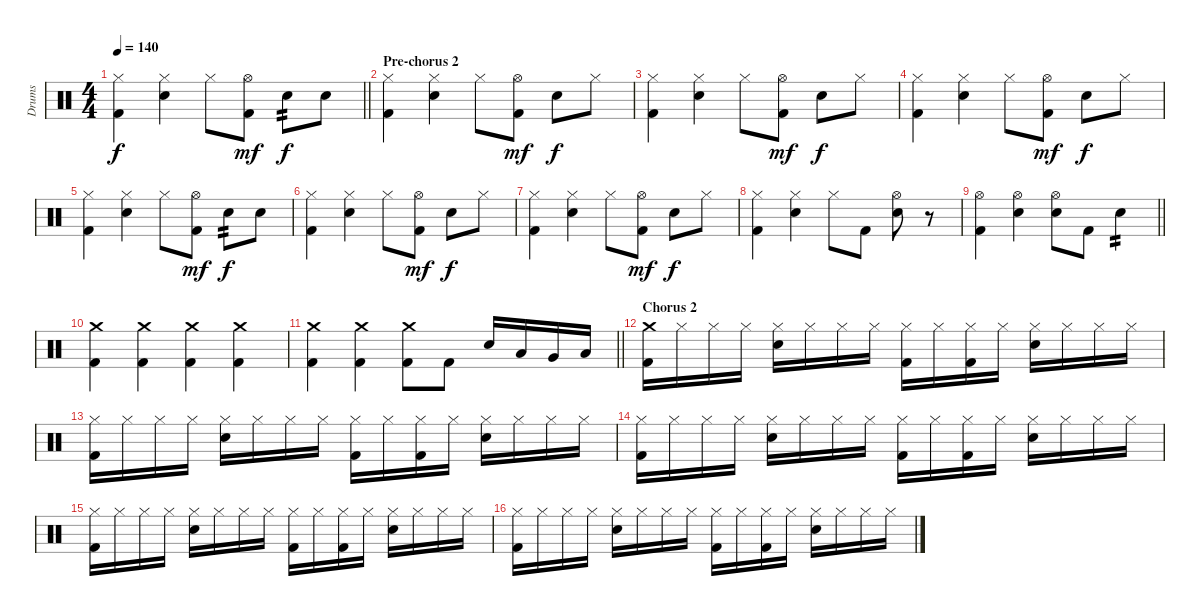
\track ("Drums" "Drums") {instrument percussion}
\staff {score}
\articulation defaults
\ts (4 4)
\tempo 140
\clef neutral
\barLineRight lightlight
\ks c
("Hi-Hat (closed)" "Kick (hit) 2").4{dy f} ("Hi-Hat (closed)" "Snare (hit) 2").4 "Hi-Hat (closed)".8 ("Hi-Hat (open)" "Kick (hit) 2").8{dy mf} "Snare (hit) 2".8{tp 2 dy f} "Snare (hit) 2".8 |
\section ("" "Pre-chorus 2")
("Hi-Hat (closed)" "Kick (hit) 2").4 ("Hi-Hat (closed)" "Snare (hit) 2").4 "Hi-Hat (closed)".8 ("Hi-Hat (open)" "Kick (hit) 2").8{dy mf} "Snare (hit) 2".8{dy f} "Hi-Hat (closed)".8 |
("Hi-Hat (closed)" "Kick (hit) 2").4 ("Hi-Hat (closed)" "Snare (hit) 2").4 "Hi-Hat (closed)".8 ("Hi-Hat (open)" "Kick (hit) 2").8{dy mf} "Snare (hit) 2".8{dy f} "Hi-Hat (closed)".8 |
("Hi-Hat (closed)" "Kick (hit) 2").4 ("Hi-Hat (closed)" "Snare (hit) 2").4 "Hi-Hat (closed)".8 ("Hi-Hat (open)" "Kick (hit) 2").8{dy mf} "Snare (hit) 2".8{dy f} "Hi-Hat (closed)".8 |
("Hi-Hat (closed)" "Kick (hit) 2").4 ("Hi-Hat (closed)" "Snare (hit) 2").4 "Hi-Hat (closed)".8 ("Hi-Hat (open)" "Kick (hit) 2").8{dy mf} "Snare (hit) 2".8{tp 2 dy f} "Snare (hit) 2".8 |
("Hi-Hat (closed)" "Kick (hit) 2").4 ("Hi-Hat (closed)" "Snare (hit) 2").4 "Hi-Hat (closed)".8 ("Hi-Hat (open)" "Kick (hit) 2").8{dy mf} "Snare (hit) 2".8{dy f} "Hi-Hat (closed)".8 |
("Hi-Hat (closed)" "Kick (hit) 2").4 ("Hi-Hat (closed)" "Snare (hit) 2").4 "Hi-Hat (closed)".8 ("Hi-Hat (open)" "Kick (hit) 2").8{dy mf} "Snare (hit) 2".8{dy f} "Hi-Hat (closed)".8 |
("Hi-Hat (closed)" "Kick (hit) 2").4 ("Hi-Hat (closed)" "Snare (hit) 2").4 "Hi-Hat (closed)".8 "Kick (hit) 2".8 ("Hi-Hat (open)" "Snare (hit) 2").8 r.8 |
\barLineRight lightlight
("Hi-Hat (open)" "Kick (hit) 2").4 ("Hi-Hat (open)" "Snare (hit) 2").4 ("Hi-Hat (open)" "Snare (hit) 2").8 "Kick (hit) 2".8 "Snare (hit) 2".4{tp 2} |
("Crash medium (hit)" "Kick (hit) 2").4 ("Crash medium (hit)" "Kick (hit) 2").4 ("Crash medium (hit)" "Kick (hit) 2").4 ("Crash medium (hit)" "Kick (hit) 2").4 |
\barLineRight lightlight
("Crash medium (hit)" "Kick (hit) 2").4 ("Crash medium (hit)" "Kick (hit) 2").4 ("Crash medium (hit)" "Kick (hit) 2").8 "Kick (hit) 2".8 "Snare (hit) 2".16 "Low Tom (hit)".16 "Very Low Tom (hit)".16 "Low Floor Tom (hit)".16 |
\section ("" "Chorus 2")
("Crash medium (hit)" "Kick (hit) 2").16 "Hi-Hat (closed)".16 "Hi-Hat (closed)".16 "Hi-Hat (closed)".16 ("Hi-Hat (closed)" "Snare (hit) 2").16 "Hi-Hat (closed)".16 "Hi-Hat (closed)".16 "Hi-Hat (closed)".16 ("Hi-Hat (closed)" "Kick (hit) 2").16 "Hi-Hat (closed)".16 ("Hi-Hat (closed)" "Kick (hit) 2").16 "Hi-Hat (closed)".16 ("Hi-Hat (closed)" "Snare (hit) 2").16 "Hi-Hat (closed)".16 "Hi-Hat (closed)".16 "Hi-Hat (closed)".16 |
("Hi-Hat (closed)" "Kick (hit) 2").16 "Hi-Hat (closed)".16 "Hi-Hat (closed)".16 "Hi-Hat (closed)".16 ("Hi-Hat (closed)" "Snare (hit) 2").16 "Hi-Hat (closed)".16 "Hi-Hat (closed)".16 "Hi-Hat (closed)".16 ("Hi-Hat (closed)" "Kick (hit) 2").16 "Hi-Hat (closed)".16 ("Hi-Hat (closed)" "Kick (hit) 2").16 "Hi-Hat (closed)".16 ("Hi-Hat (closed)" "Snare (hit) 2").16 "Hi-Hat (closed)".16 "Hi-Hat (closed)".16 "Hi-Hat (closed)".16 |
("Hi-Hat (closed)" "Kick (hit) 2").16 "Hi-Hat (closed)".16 "Hi-Hat (closed)".16 "Hi-Hat (closed)".16 ("Hi-Hat (closed)" "Snare (hit) 2").16 "Hi-Hat (closed)".16 "Hi-Hat (closed)".16 "Hi-Hat (closed)".16 ("Hi-Hat (closed)" "Kick (hit) 2").16 "Hi-Hat (closed)".16 ("Hi-Hat (closed)" "Kick (hit) 2").16 "Hi-Hat (closed)".16 ("Hi-Hat (closed)" "Snare (hit) 2").16 "Hi-Hat (closed)".16 "Hi-Hat (closed)".16 "Hi-Hat (closed)".16 |
("Hi-Hat (closed)" "Kick (hit) 2").16 "Hi-Hat (closed)".16 "Hi-Hat (closed)".16 "Hi-Hat (closed)".16 ("Hi-Hat (closed)" "Snare (hit) 2").16 "Hi-Hat (closed)".16 "Hi-Hat (closed)".16 "Hi-Hat (closed)".16 ("Hi-Hat (closed)" "Kick (hit) 2").16 "Hi-Hat (closed)".16 ("Hi-Hat (closed)" "Kick (hit) 2").16 "Hi-Hat (closed)".16 ("Hi-Hat (closed)" "Snare (hit) 2").16 "Hi-Hat (closed)".16 "Hi-Hat (closed)".16 "Hi-Hat (closed)".16 |
("Hi-Hat (closed)" "Kick (hit) 2").16 "Hi-Hat (closed)".16 "Hi-Hat (closed)".16 "Hi-Hat (closed)".16 ("Hi-Hat (closed)" "Snare (hit) 2").16 "Hi-Hat (closed)".16 "Hi-Hat (closed)".16 "Hi-Hat (closed)".16 ("Hi-Hat (closed)" "Kick (hit) 2").16 "Hi-Hat (closed)".16 ("Hi-Hat (closed)" "Kick (hit) 2").16 "Hi-Hat (closed)".16 ("Hi-Hat (closed)" "Snare (hit) 2").16 "Hi-Hat (closed)".16 "Hi-Hat (closed)".16 "Hi-Hat (closed)".16
